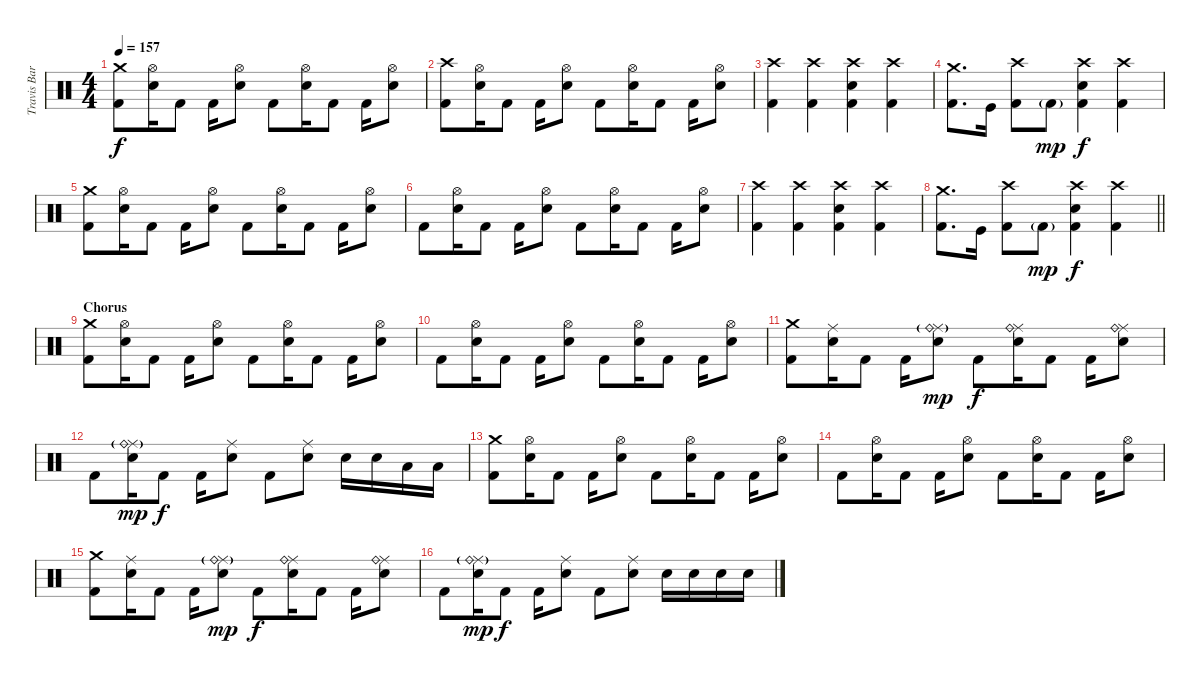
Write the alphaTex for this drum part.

\track ("Travis Barker - Drums" "Travis Bar") {instrument percussion}
\staff {score}
\articulation defaults
\ts (4 4)
\tempo 157
\clef neutral
\ks c
("Crash medium (hit)" "Kick (hit) 2").8{dy f} ("Hi-Hat (open)" "Electric Snare (hit)").16 "Kick (hit) 2".8 "Kick (hit) 2".16 ("Hi-Hat (open)" "Electric Snare (hit)").8 "Kick (hit) 2".8 ("Hi-Hat (open)" "Electric Snare (hit)").16 "Kick (hit) 2".8 "Kick (hit) 2".16 ("Hi-Hat (open)" "Electric Snare (hit)").8 |
("Crash high (hit)" "Kick (hit) 2").8 ("Hi-Hat (open)" "Electric Snare (hit)").16 "Kick (hit) 2".8 "Kick (hit) 2".16 ("Hi-Hat (open)" "Electric Snare (hit)").8 "Kick (hit) 2".8 ("Hi-Hat (open)" "Electric Snare (hit)").16 "Kick (hit) 2".8 "Kick (hit) 2".16 ("Hi-Hat (open)" "Electric Snare (hit)").8 |
("Crash high (hit)" "Kick (hit) 2").4 ("Crash high (hit)" "Kick (hit) 2").4 ("Crash high (hit)" "Electric Snare (hit)" "Kick (hit) 2").4 ("Crash high (hit)" "Kick (hit) 2").4 |
("Crash medium (hit)" "Kick (hit) 2").8{d} "Kick (hit)".16 ("Crash high (hit)" "Kick (hit) 2").8 "Kick (hit) 2"{g}.8{dy mp} ("Crash high (hit)" "Electric Snare (hit)" "Kick (hit) 2").4{dy f} ("Crash high (hit)" "Kick (hit) 2").4 |
("Crash medium (hit)" "Kick (hit) 2").8 ("Hi-Hat (open)" "Electric Snare (hit)").16 "Kick (hit) 2".8 "Kick (hit) 2".16 ("Hi-Hat (open)" "Electric Snare (hit)").8 "Kick (hit) 2".8 ("Hi-Hat (open)" "Electric Snare (hit)").16 "Kick (hit) 2".8 "Kick (hit) 2".16 ("Hi-Hat (open)" "Electric Snare (hit)").8 |
"Kick (hit) 2".8 ("Hi-Hat (open)" "Electric Snare (hit)").16 "Kick (hit) 2".8 "Kick (hit) 2".16 ("Hi-Hat (open)" "Electric Snare (hit)").8 "Kick (hit) 2".8 ("Hi-Hat (open)" "Electric Snare (hit)").16 "Kick (hit) 2".8 "Kick (hit) 2".16 ("Hi-Hat (open)" "Electric Snare (hit)").8 |
("Crash high (hit)" "Kick (hit) 2").4 ("Crash high (hit)" "Kick (hit) 2").4 ("Crash high (hit)" "Electric Snare (hit)" "Kick (hit) 2").4 ("Crash high (hit)" "Kick (hit) 2").4 |
\barLineRight lightlight
("Crash medium (hit)" "Kick (hit) 2").8{d} "Kick (hit)".16 ("Crash high (hit)" "Kick (hit) 2").8 "Kick (hit) 2"{g}.8{dy mp} ("Crash high (hit)" "Electric Snare (hit)" "Kick (hit) 2").4{dy f} ("Crash high (hit)" "Kick (hit) 2").4 |
\section ("" "Chorus")
("Crash medium (hit)" "Kick (hit) 2").8 ("Hi-Hat (open)" "Electric Snare (hit)").16 "Kick (hit) 2".8 "Kick (hit) 2".16 ("Hi-Hat (open)" "Electric Snare (hit)").8 "Kick (hit) 2".8 ("Hi-Hat (open)" "Electric Snare (hit)").16 "Kick (hit) 2".8 "Kick (hit) 2".16 ("Hi-Hat (open)" "Electric Snare (hit)").8 |
"Kick (hit) 2".8 ("Hi-Hat (open)" "Electric Snare (hit)").16 "Kick (hit) 2".8 "Kick (hit) 2".16 ("Hi-Hat (open)" "Electric Snare (hit)").8 "Kick (hit) 2".8 ("Hi-Hat (open)" "Electric Snare (hit)").16 "Kick (hit) 2".8 "Kick (hit) 2".16 ("Hi-Hat (open)" "Electric Snare (hit)").8 |
("Crash medium (hit)" "Kick (hit) 2").8 ("Ride (middle)" "Electric Snare (hit)").16 "Kick (hit) 2".8 "Kick (hit) 2".16 ("Ride (middle)" "Ride (bell)"{g} "Electric Snare (hit)").8{dy mp} "Kick (hit) 2".8{dy f} ("Ride (middle)" "Ride (bell)" "Electric Snare (hit)").16 "Kick (hit) 2".8 "Kick (hit) 2".16 ("Ride (middle)" "Ride (bell)" "Electric Snare (hit)").8 |
"Kick (hit) 2".8 ("Ride (middle)" "Ride (bell)"{g} "Electric Snare (hit)").16{dy mp} "Kick (hit) 2".8{dy f} "Kick (hit) 2".16 ("Ride (middle)" "Electric Snare (hit)").8 "Kick (hit) 2".8 ("Ride (middle)" "Electric Snare (hit)").8 "Electric Snare (hit)".16 "Electric Snare (hit)".16 "Low Tom (hit)".16 "Low Tom (hit)".16 |
("Crash medium (hit)" "Kick (hit) 2").8 ("Hi-Hat (open)" "Electric Snare (hit)").16 "Kick (hit) 2".8 "Kick (hit) 2".16 ("Hi-Hat (open)" "Electric Snare (hit)").8 "Kick (hit) 2".8 ("Hi-Hat (open)" "Electric Snare (hit)").16 "Kick (hit) 2".8 "Kick (hit) 2".16 ("Hi-Hat (open)" "Electric Snare (hit)").8 |
"Kick (hit) 2".8 ("Hi-Hat (open)" "Electric Snare (hit)").16 "Kick (hit) 2".8 "Kick (hit) 2".16 ("Hi-Hat (open)" "Electric Snare (hit)").8 "Kick (hit) 2".8 ("Hi-Hat (open)" "Electric Snare (hit)").16 "Kick (hit) 2".8 "Kick (hit) 2".16 ("Hi-Hat (open)" "Electric Snare (hit)").8 |
("Crash medium (hit)" "Kick (hit) 2").8 ("Ride (middle)" "Electric Snare (hit)").16 "Kick (hit) 2".8 "Kick (hit) 2".16 ("Ride (middle)" "Ride (bell)"{g} "Electric Snare (hit)").8{dy mp} "Kick (hit) 2".8{dy f} ("Ride (middle)" "Ride (bell)" "Electric Snare (hit)").16 "Kick (hit) 2".8 "Kick (hit) 2".16 ("Ride (middle)" "Ride (bell)" "Electric Snare (hit)").8 |
"Kick (hit) 2".8 ("Ride (middle)" "Ride (bell)"{g} "Electric Snare (hit)").16{dy mp} "Kick (hit) 2".8{dy f} "Kick (hit) 2".16 ("Ride (middle)" "Electric Snare (hit)").8 "Kick (hit) 2".8 ("Ride (middle)" "Electric Snare (hit)").8 "Electric Snare (hit)".16 "Electric Snare (hit)".16 "Electric Snare (hit)".16 "Electric Snare (hit)".16
